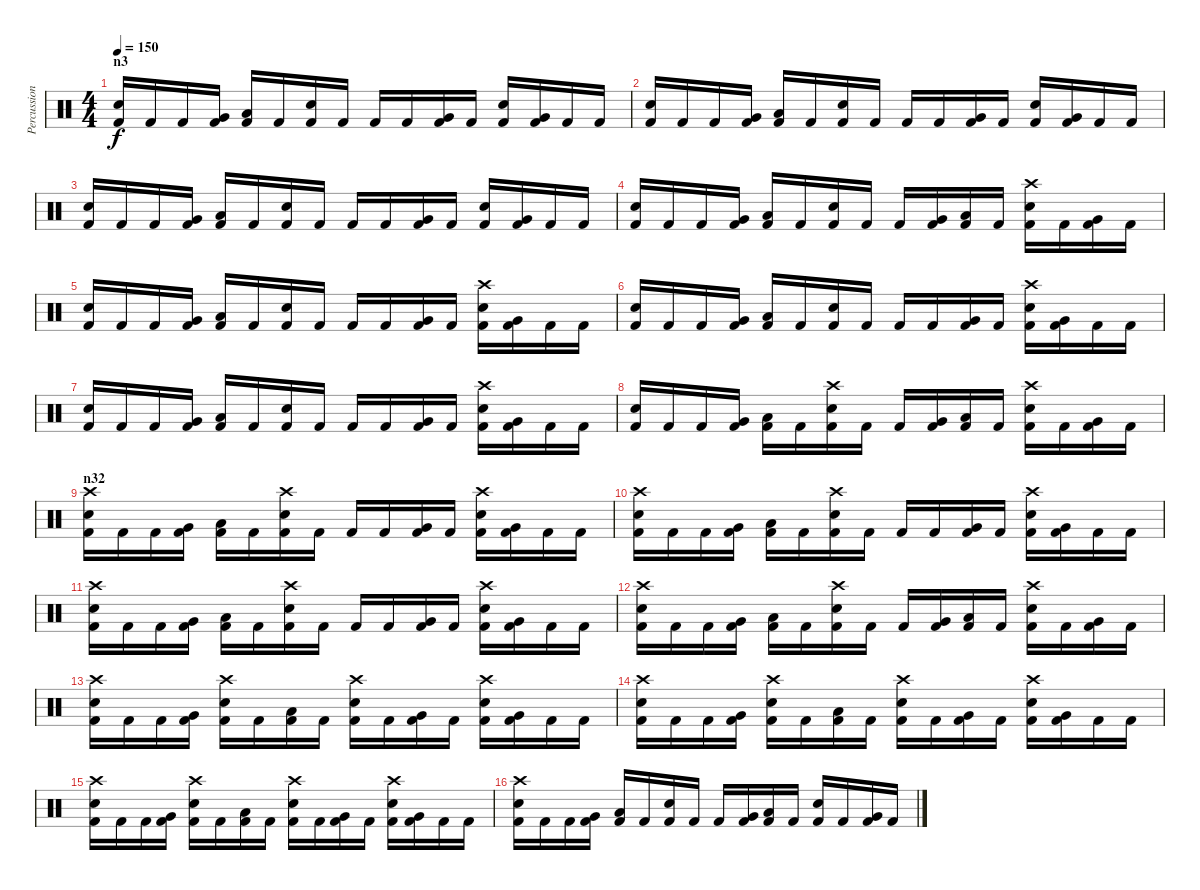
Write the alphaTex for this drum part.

\track ("Percussion" "Percussion") {instrument percussion}
\staff {score}
\articulation defaults
\ts (4 4)
\section ("" "n3")
\tempo 150
\clef neutral
\ks c
("Kick (hit) 2" "Electric Snare (hit)").16{dy f} "Kick (hit) 2".16 "Kick (hit) 2".16 ("Kick (hit) 2" "Very Low Tom (hit)").16 ("Kick (hit) 2" "Low Floor Tom (hit)").16 "Kick (hit) 2".16 ("Kick (hit) 2" "Electric Snare (hit)").16 "Kick (hit) 2".16 "Kick (hit) 2".16 "Kick (hit) 2".16 ("Kick (hit) 2" "Very Low Tom (hit)").16 "Kick (hit) 2".16 ("Kick (hit) 2" "Electric Snare (hit)").16 ("Kick (hit) 2" "Very Low Tom (hit)").16 "Kick (hit) 2".16 "Kick (hit) 2".16 |
("Kick (hit) 2" "Electric Snare (hit)").16 "Kick (hit) 2".16 "Kick (hit) 2".16 ("Kick (hit) 2" "Very Low Tom (hit)").16 ("Kick (hit) 2" "Low Floor Tom (hit)").16 "Kick (hit) 2".16 ("Kick (hit) 2" "Electric Snare (hit)").16 "Kick (hit) 2".16 "Kick (hit) 2".16 "Kick (hit) 2".16 ("Kick (hit) 2" "Very Low Tom (hit)").16 "Kick (hit) 2".16 ("Kick (hit) 2" "Electric Snare (hit)").16 ("Kick (hit) 2" "Very Low Tom (hit)").16 "Kick (hit) 2".16 "Kick (hit) 2".16 |
("Kick (hit) 2" "Electric Snare (hit)").16 "Kick (hit) 2".16 "Kick (hit) 2".16 ("Kick (hit) 2" "Very Low Tom (hit)").16 ("Kick (hit) 2" "Low Floor Tom (hit)").16 "Kick (hit) 2".16 ("Kick (hit) 2" "Electric Snare (hit)").16 "Kick (hit) 2".16 "Kick (hit) 2".16 "Kick (hit) 2".16 ("Kick (hit) 2" "Very Low Tom (hit)").16 "Kick (hit) 2".16 ("Kick (hit) 2" "Electric Snare (hit)").16 ("Kick (hit) 2" "Very Low Tom (hit)").16 "Kick (hit) 2".16 "Kick (hit) 2".16 |
("Kick (hit) 2" "Electric Snare (hit)").16 "Kick (hit) 2".16 "Kick (hit) 2".16 ("Kick (hit) 2" "Very Low Tom (hit)").16 ("Kick (hit) 2" "Low Floor Tom (hit)").16 "Kick (hit) 2".16 ("Kick (hit) 2" "Electric Snare (hit)").16 "Kick (hit) 2".16 "Kick (hit) 2".16 ("Kick (hit) 2" "Very Low Tom (hit)").16 ("Kick (hit) 2" "Low Floor Tom (hit)").16 "Kick (hit) 2".16 ("Kick (hit) 2" "Electric Snare (hit)" "Crash high (hit)").16 "Kick (hit) 2".16 ("Kick (hit) 2" "Very Low Tom (hit)").16 "Kick (hit) 2".16 |
("Kick (hit) 2" "Electric Snare (hit)").16 "Kick (hit) 2".16 "Kick (hit) 2".16 ("Kick (hit) 2" "Very Low Tom (hit)").16 ("Kick (hit) 2" "Low Floor Tom (hit)").16 "Kick (hit) 2".16 ("Kick (hit) 2" "Electric Snare (hit)").16 "Kick (hit) 2".16 "Kick (hit) 2".16 "Kick (hit) 2".16 ("Kick (hit) 2" "Very Low Tom (hit)").16 "Kick (hit) 2".16 ("Kick (hit) 2" "Electric Snare (hit)" "Crash high (hit)").16 ("Kick (hit) 2" "Very Low Tom (hit)").16 "Kick (hit) 2".16 "Kick (hit) 2".16 |
("Kick (hit) 2" "Electric Snare (hit)").16 "Kick (hit) 2".16 "Kick (hit) 2".16 ("Kick (hit) 2" "Very Low Tom (hit)").16 ("Kick (hit) 2" "Low Floor Tom (hit)").16 "Kick (hit) 2".16 ("Kick (hit) 2" "Electric Snare (hit)").16 "Kick (hit) 2".16 "Kick (hit) 2".16 "Kick (hit) 2".16 ("Kick (hit) 2" "Very Low Tom (hit)").16 "Kick (hit) 2".16 ("Kick (hit) 2" "Electric Snare (hit)" "Crash high (hit)").16 ("Kick (hit) 2" "Very Low Tom (hit)").16 "Kick (hit) 2".16 "Kick (hit) 2".16 |
("Kick (hit) 2" "Electric Snare (hit)").16 "Kick (hit) 2".16 "Kick (hit) 2".16 ("Kick (hit) 2" "Very Low Tom (hit)").16 ("Kick (hit) 2" "Low Floor Tom (hit)").16 "Kick (hit) 2".16 ("Kick (hit) 2" "Electric Snare (hit)").16 "Kick (hit) 2".16 "Kick (hit) 2".16 "Kick (hit) 2".16 ("Kick (hit) 2" "Very Low Tom (hit)").16 "Kick (hit) 2".16 ("Kick (hit) 2" "Electric Snare (hit)" "Crash high (hit)").16 ("Kick (hit) 2" "Very Low Tom (hit)").16 "Kick (hit) 2".16 "Kick (hit) 2".16 |
("Kick (hit) 2" "Electric Snare (hit)").16 "Kick (hit) 2".16 "Kick (hit) 2".16 ("Kick (hit) 2" "Very Low Tom (hit)").16 ("Kick (hit) 2" "Low Floor Tom (hit)").16 "Kick (hit) 2".16 ("Kick (hit) 2" "Electric Snare (hit)" "Crash high (hit)").16 "Kick (hit) 2".16 "Kick (hit) 2".16 ("Kick (hit) 2" "Very Low Tom (hit)").16 ("Kick (hit) 2" "Low Floor Tom (hit)").16 "Kick (hit) 2".16 ("Kick (hit) 2" "Electric Snare (hit)" "Crash high (hit)").16 "Kick (hit) 2".16 ("Kick (hit) 2" "Very Low Tom (hit)").16 "Kick (hit) 2".16 |
\section ("" "n32")
("Kick (hit) 2" "Electric Snare (hit)" "Crash high (hit)").16 "Kick (hit) 2".16 "Kick (hit) 2".16 ("Kick (hit) 2" "Very Low Tom (hit)").16 ("Kick (hit) 2" "Low Floor Tom (hit)").16 "Kick (hit) 2".16 ("Kick (hit) 2" "Electric Snare (hit)" "Crash high (hit)").16 "Kick (hit) 2".16 "Kick (hit) 2".16 "Kick (hit) 2".16 ("Kick (hit) 2" "Very Low Tom (hit)").16 "Kick (hit) 2".16 ("Kick (hit) 2" "Electric Snare (hit)" "Crash high (hit)").16 ("Kick (hit) 2" "Very Low Tom (hit)").16 "Kick (hit) 2".16 "Kick (hit) 2".16 |
("Kick (hit) 2" "Electric Snare (hit)" "Crash high (hit)").16 "Kick (hit) 2".16 "Kick (hit) 2".16 ("Kick (hit) 2" "Very Low Tom (hit)").16 ("Kick (hit) 2" "Low Floor Tom (hit)").16 "Kick (hit) 2".16 ("Kick (hit) 2" "Electric Snare (hit)" "Crash high (hit)").16 "Kick (hit) 2".16 "Kick (hit) 2".16 "Kick (hit) 2".16 ("Kick (hit) 2" "Very Low Tom (hit)").16 "Kick (hit) 2".16 ("Kick (hit) 2" "Electric Snare (hit)" "Crash high (hit)").16 ("Kick (hit) 2" "Very Low Tom (hit)").16 "Kick (hit) 2".16 "Kick (hit) 2".16 |
("Kick (hit) 2" "Electric Snare (hit)" "Crash high (hit)").16 "Kick (hit) 2".16 "Kick (hit) 2".16 ("Kick (hit) 2" "Very Low Tom (hit)").16 ("Kick (hit) 2" "Low Floor Tom (hit)").16 "Kick (hit) 2".16 ("Kick (hit) 2" "Electric Snare (hit)" "Crash high (hit)").16 "Kick (hit) 2".16 "Kick (hit) 2".16 "Kick (hit) 2".16 ("Kick (hit) 2" "Very Low Tom (hit)").16 "Kick (hit) 2".16 ("Kick (hit) 2" "Electric Snare (hit)" "Crash high (hit)").16 ("Kick (hit) 2" "Very Low Tom (hit)").16 "Kick (hit) 2".16 "Kick (hit) 2".16 |
("Kick (hit) 2" "Electric Snare (hit)" "Crash high (hit)").16 "Kick (hit) 2".16 "Kick (hit) 2".16 ("Kick (hit) 2" "Very Low Tom (hit)").16 ("Kick (hit) 2" "Low Floor Tom (hit)").16 "Kick (hit) 2".16 ("Kick (hit) 2" "Electric Snare (hit)" "Crash high (hit)").16 "Kick (hit) 2".16 "Kick (hit) 2".16 ("Kick (hit) 2" "Very Low Tom (hit)").16 ("Kick (hit) 2" "Low Floor Tom (hit)").16 "Kick (hit) 2".16 ("Kick (hit) 2" "Electric Snare (hit)" "Crash high (hit)").16 "Kick (hit) 2".16 ("Kick (hit) 2" "Very Low Tom (hit)").16 "Kick (hit) 2".16 |
("Kick (hit) 2" "Electric Snare (hit)" "Crash high (hit)").16 "Kick (hit) 2".16 "Kick (hit) 2".16 ("Kick (hit) 2" "Very Low Tom (hit)").16 ("Kick (hit) 2" "Electric Snare (hit)" "Crash high (hit)").16 "Kick (hit) 2".16 ("Kick (hit) 2" "Low Floor Tom (hit)").16 "Kick (hit) 2".16 ("Kick (hit) 2" "Electric Snare (hit)" "Crash high (hit)").16 "Kick (hit) 2".16 ("Kick (hit) 2" "Very Low Tom (hit)").16 "Kick (hit) 2".16 ("Kick (hit) 2" "Electric Snare (hit)" "Crash high (hit)").16 ("Kick (hit) 2" "Very Low Tom (hit)").16 "Kick (hit) 2".16 "Kick (hit) 2".16 |
("Kick (hit) 2" "Electric Snare (hit)" "Crash high (hit)").16 "Kick (hit) 2".16 "Kick (hit) 2".16 ("Kick (hit) 2" "Very Low Tom (hit)").16 ("Kick (hit) 2" "Electric Snare (hit)" "Crash high (hit)").16 "Kick (hit) 2".16 ("Kick (hit) 2" "Low Floor Tom (hit)").16 "Kick (hit) 2".16 ("Kick (hit) 2" "Electric Snare (hit)" "Crash high (hit)").16 "Kick (hit) 2".16 ("Kick (hit) 2" "Very Low Tom (hit)").16 "Kick (hit) 2".16 ("Kick (hit) 2" "Electric Snare (hit)" "Crash high (hit)").16 ("Kick (hit) 2" "Very Low Tom (hit)").16 "Kick (hit) 2".16 "Kick (hit) 2".16 |
("Kick (hit) 2" "Electric Snare (hit)" "Crash high (hit)").16 "Kick (hit) 2".16 "Kick (hit) 2".16 ("Kick (hit) 2" "Very Low Tom (hit)").16 ("Kick (hit) 2" "Electric Snare (hit)" "Crash high (hit)").16 "Kick (hit) 2".16 ("Kick (hit) 2" "Low Floor Tom (hit)").16 "Kick (hit) 2".16 ("Kick (hit) 2" "Electric Snare (hit)" "Crash high (hit)").16 "Kick (hit) 2".16 ("Kick (hit) 2" "Very Low Tom (hit)").16 "Kick (hit) 2".16 ("Kick (hit) 2" "Electric Snare (hit)" "Crash high (hit)").16 ("Kick (hit) 2" "Very Low Tom (hit)").16 "Kick (hit) 2".16 "Kick (hit) 2".16 |
("Kick (hit) 2" "Electric Snare (hit)" "Crash high (hit)").16 "Kick (hit) 2".16 "Kick (hit) 2".16 ("Kick (hit) 2" "Very Low Tom (hit)").16 ("Kick (hit) 2" "Low Floor Tom (hit)").16 "Kick (hit) 2".16 ("Kick (hit) 2" "Electric Snare (hit)").16 "Kick (hit) 2".16 "Kick (hit) 2".16 ("Kick (hit) 2" "Very Low Tom (hit)").16 ("Kick (hit) 2" "Low Floor Tom (hit)").16 "Kick (hit) 2".16 ("Kick (hit) 2" "Electric Snare (hit)").16 "Kick (hit) 2".16 ("Kick (hit) 2" "Very Low Tom (hit)").16 "Kick (hit) 2".16
